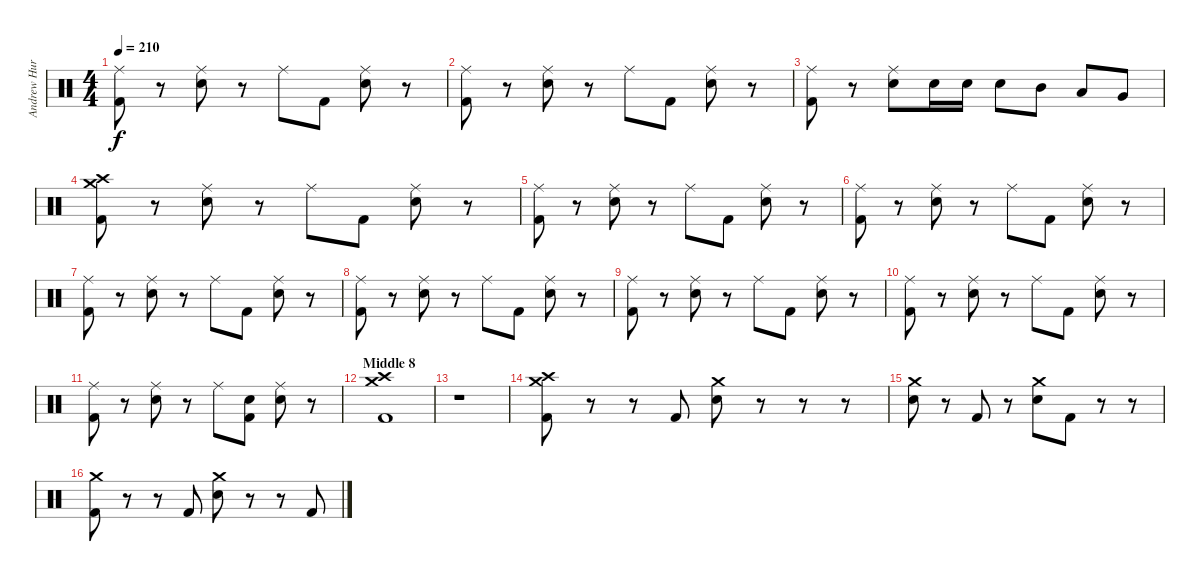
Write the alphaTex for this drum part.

\track ("Andrew Hurley (Drums)" "Andrew Hur") {instrument percussion}
\staff {score}
\articulation defaults
\ts (4 4)
\tempo 210
\clef neutral
\ks c
("Ride (middle)" "Kick (hit) 2").8{dy f} r.8 ("Ride (middle)" "Electric Snare (hit)").8 r.8 "Ride (middle)".8 "Kick (hit) 2".8 ("Ride (middle)" "Electric Snare (hit)").8 r.8 |
("Ride (middle)" "Kick (hit) 2").8 r.8 ("Ride (middle)" "Electric Snare (hit)").8 r.8 "Ride (middle)".8 "Kick (hit) 2".8 ("Ride (middle)" "Electric Snare (hit)").8 r.8 |
("Ride (middle)" "Kick (hit) 2").8 r.8 ("Ride (middle)" "Electric Snare (hit)").8 "Electric Snare (hit)".16 "Electric Snare (hit)".16 "Electric Snare (hit)".8 "Mid Tom (hit)".8 "Low Tom (hit)".8 "Very Low Tom (hit)".8 |
("Crash medium (hit)" "Crash high (hit)" "Kick (hit) 2").8 r.8 ("Ride (middle)" "Electric Snare (hit)").8 r.8 "Ride (middle)".8 "Kick (hit) 2".8 ("Ride (middle)" "Electric Snare (hit)").8 r.8 |
("Ride (middle)" "Kick (hit) 2").8 r.8 ("Ride (middle)" "Electric Snare (hit)").8 r.8 "Ride (middle)".8 "Kick (hit) 2".8 ("Ride (middle)" "Electric Snare (hit)").8 r.8 |
("Ride (middle)" "Kick (hit) 2").8 r.8 ("Ride (middle)" "Electric Snare (hit)").8 r.8 "Ride (middle)".8 "Kick (hit) 2".8 ("Ride (middle)" "Electric Snare (hit)").8 r.8 |
("Ride (middle)" "Kick (hit) 2").8 r.8 ("Ride (middle)" "Electric Snare (hit)").8 r.8 "Ride (middle)".8 "Kick (hit) 2".8 ("Ride (middle)" "Electric Snare (hit)").8 r.8 |
("Ride (middle)" "Kick (hit) 2").8 r.8 ("Ride (middle)" "Electric Snare (hit)").8 r.8 "Ride (middle)".8 "Kick (hit) 2".8 ("Ride (middle)" "Electric Snare (hit)").8 r.8 |
("Ride (middle)" "Kick (hit) 2").8 r.8 ("Ride (middle)" "Electric Snare (hit)").8 r.8 "Ride (middle)".8 "Kick (hit) 2".8 ("Ride (middle)" "Electric Snare (hit)").8 r.8 |
("Ride (middle)" "Kick (hit) 2").8 r.8 ("Ride (middle)" "Electric Snare (hit)").8 r.8 "Ride (middle)".8 "Kick (hit) 2".8 ("Ride (middle)" "Electric Snare (hit)").8 r.8 |
("Ride (middle)" "Kick (hit) 2").8 r.8 ("Ride (middle)" "Electric Snare (hit)").8 r.8 "Ride (middle)".8 ("Electric Snare (hit)" "Kick (hit) 2").8 ("Ride (middle)" "Electric Snare (hit)").8 r.8 |
\section ("" "Middle 8")
("Crash medium (hit)" "Crash high (hit)" "Kick (hit) 2").1 |
r.1 |
("Crash high (hit)" "Crash medium (hit)" "Kick (hit) 2").8 r.8 r.8 "Kick (hit) 2".8 ("Crash medium (hit)" "Electric Snare (hit)").8 r.8 r.8 r.8 |
("Crash medium (hit)" "Electric Snare (hit)").8 r.8 "Kick (hit) 2".8 r.8 ("Crash medium (hit)" "Electric Snare (hit)").8 "Kick (hit) 2".8 r.8 r.8 |
("Crash medium (hit)" "Kick (hit) 2").8 r.8 r.8 "Kick (hit) 2".8 ("Crash medium (hit)" "Electric Snare (hit)").8 r.8 r.8 "Kick (hit) 2".8
